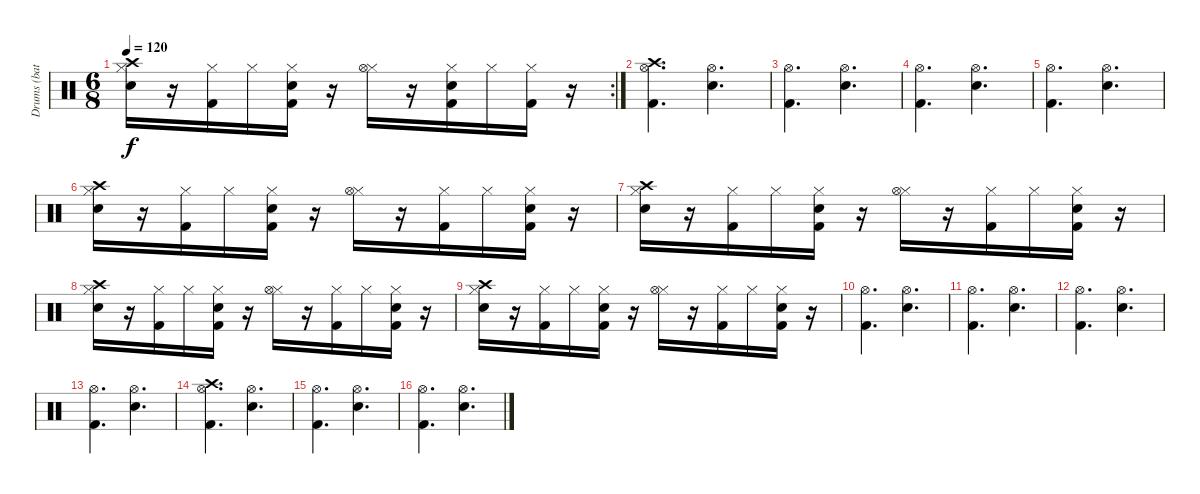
\track ("Drums (bateria)" "Drums (bat") {instrument percussion}
\staff {score}
\articulation defaults
\rc 2
\ts (6 8)
\tempo 120
\clef neutral
\ks c
("Hi-Hat (closed)" "Crash high (hit)" "Snare (hit) 2").16{dy f} r.16 ("Hi-Hat (closed)" "Kick (hit) 2").16 "Hi-Hat (closed)".16 ("Hi-Hat (closed)" "Kick (hit) 2" "Snare (hit) 2").16 r.16 ("Hi-Hat (closed)" "Hi-Hat (open)").16 r.16 ("Hi-Hat (closed)" "Kick (hit) 2" "Snare (hit) 2").16 "Hi-Hat (closed)".16 ("Hi-Hat (closed)" "Kick (hit) 2").16 r.16 |
("Kick (hit) 2" "Hi-Hat (open)" "Crash high (hit)").4{d} ("Snare (hit) 2" "Hi-Hat (open)").4{d} |
("Kick (hit) 2" "Hi-Hat (open)").4{d} ("Snare (hit) 2" "Hi-Hat (open)").4{d} |
("Kick (hit) 2" "Hi-Hat (open)").4{d} ("Snare (hit) 2" "Hi-Hat (open)").4{d} |
("Kick (hit) 2" "Hi-Hat (open)").4{d} ("Snare (hit) 2" "Hi-Hat (open)").4{d} |
("Hi-Hat (closed)" "Crash high (hit)" "Snare (hit) 2").16 r.16 ("Hi-Hat (closed)" "Kick (hit) 2").16 "Hi-Hat (closed)".16 ("Hi-Hat (closed)" "Kick (hit) 2" "Snare (hit) 2").16 r.16 ("Hi-Hat (closed)" "Hi-Hat (open)").16 r.16 ("Hi-Hat (closed)" "Kick (hit) 2").16 "Hi-Hat (closed)".16 ("Hi-Hat (closed)" "Kick (hit) 2" "Snare (hit) 2").16 r.16 |
("Hi-Hat (closed)" "Crash high (hit)" "Snare (hit) 2").16 r.16 ("Hi-Hat (closed)" "Kick (hit) 2").16 "Hi-Hat (closed)".16 ("Hi-Hat (closed)" "Kick (hit) 2" "Snare (hit) 2").16 r.16 ("Hi-Hat (closed)" "Hi-Hat (open)").16 r.16 ("Hi-Hat (closed)" "Kick (hit) 2").16 "Hi-Hat (closed)".16 ("Hi-Hat (closed)" "Kick (hit) 2" "Snare (hit) 2").16 r.16 |
("Hi-Hat (closed)" "Crash high (hit)" "Snare (hit) 2").16 r.16 ("Hi-Hat (closed)" "Kick (hit) 2").16 "Hi-Hat (closed)".16 ("Hi-Hat (closed)" "Kick (hit) 2" "Snare (hit) 2").16 r.16 ("Hi-Hat (closed)" "Hi-Hat (open)").16 r.16 ("Hi-Hat (closed)" "Kick (hit) 2").16 "Hi-Hat (closed)".16 ("Hi-Hat (closed)" "Kick (hit) 2" "Snare (hit) 2").16 r.16 |
("Hi-Hat (closed)" "Crash high (hit)" "Snare (hit) 2").16 r.16 ("Hi-Hat (closed)" "Kick (hit) 2").16 "Hi-Hat (closed)".16 ("Hi-Hat (closed)" "Kick (hit) 2" "Snare (hit) 2").16 r.16 ("Hi-Hat (closed)" "Hi-Hat (open)").16 r.16 ("Hi-Hat (closed)" "Kick (hit) 2").16 "Hi-Hat (closed)".16 ("Hi-Hat (closed)" "Kick (hit) 2" "Snare (hit) 2").16 r.16 |
("Kick (hit) 2" "Hi-Hat (open)").4{d} ("Snare (hit) 2" "Hi-Hat (open)").4{d} |
("Kick (hit) 2" "Hi-Hat (open)").4{d} ("Snare (hit) 2" "Hi-Hat (open)").4{d} |
("Kick (hit) 2" "Hi-Hat (open)").4{d} ("Snare (hit) 2" "Hi-Hat (open)").4{d} |
("Kick (hit) 2" "Hi-Hat (open)").4{d} ("Snare (hit) 2" "Hi-Hat (open)").4{d} |
("Kick (hit) 2" "Hi-Hat (open)" "Crash high (hit)").4{d} ("Snare (hit) 2" "Hi-Hat (open)").4{d} |
("Kick (hit) 2" "Hi-Hat (open)").4{d} ("Snare (hit) 2" "Hi-Hat (open)").4{d} |
("Kick (hit) 2" "Hi-Hat (open)").4{d} ("Snare (hit) 2" "Hi-Hat (open)").4{d}
